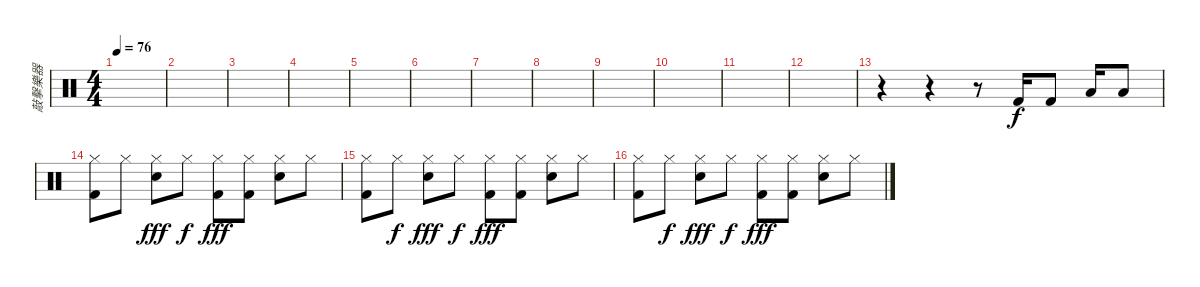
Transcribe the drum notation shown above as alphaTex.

\track ("敲擊樂器" "敲擊樂器") {instrument percussion}
\staff {score}
\articulation defaults
\ts (4 4)
\tempo 76
\clef neutral
\ks c
|
|
|
|
|
|
|
|
|
|
|
|
r.4 r.4 r.8 "Kick (hit) 2".16 "Kick (hit) 2".8 "Low Floor Tom (hit)".16 "Low Floor Tom (hit)".8 |
("Hi-Hat (closed)" "Kick (hit) 2").8 "Hi-Hat (closed)".8{dy f} ("Hi-Hat (closed)" "Snare (hit) 2").8{dy fff} "Hi-Hat (closed)".8{dy f} ("Hi-Hat (closed)" "Kick (hit) 2").8{dy fff} ("Hi-Hat (closed)" "Kick (hit) 2").8 ("Hi-Hat (closed)" "Snare (hit) 2").8 "Hi-Hat (closed)".8 |
("Hi-Hat (closed)" "Kick (hit) 2").8 "Hi-Hat (closed)".8{dy f} ("Hi-Hat (closed)" "Snare (hit) 2").8{dy fff} "Hi-Hat (closed)".8{dy f} ("Hi-Hat (closed)" "Kick (hit) 2").8{dy fff} ("Hi-Hat (closed)" "Kick (hit) 2").8 ("Hi-Hat (closed)" "Snare (hit) 2").8 "Hi-Hat (closed)".8 |
("Hi-Hat (closed)" "Kick (hit) 2").8 "Hi-Hat (closed)".8{dy f} ("Hi-Hat (closed)" "Snare (hit) 2").8{dy fff} "Hi-Hat (closed)".8{dy f} ("Hi-Hat (closed)" "Kick (hit) 2").8{dy fff} ("Hi-Hat (closed)" "Kick (hit) 2").8 ("Hi-Hat (closed)" "Snare (hit) 2").8 "Hi-Hat (closed)".8
